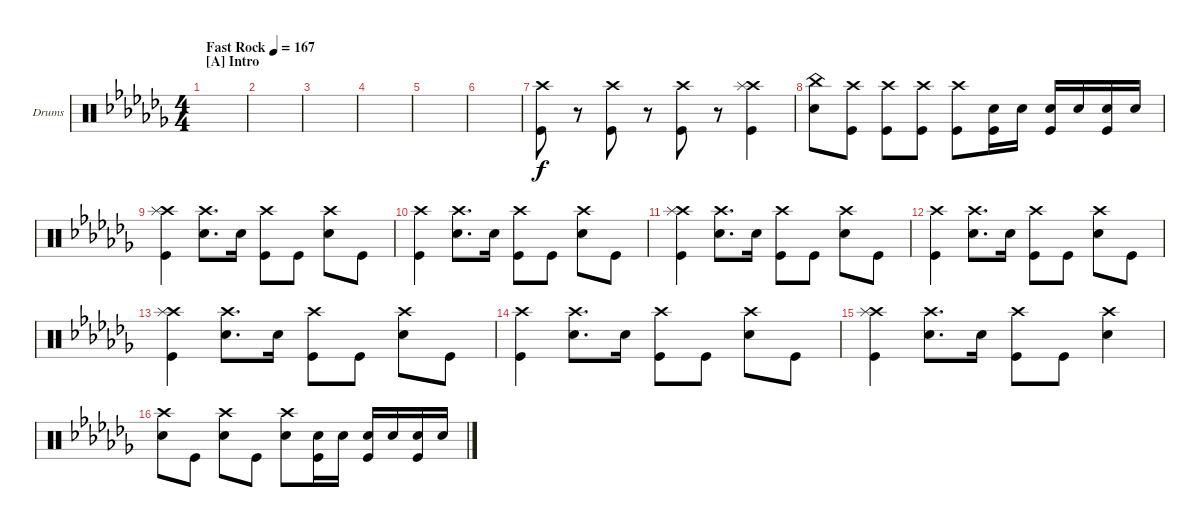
\defaultSystemsLayout 4
\bracketExtendMode groupsimilarinstruments
\firstSystemTrackNameOrientation horizontal
\otherSystemsTrackNameOrientation horizontal
\track ("Drumkit" "Drums") {instrument percussion}
\staff {score}
\articulation defaults
\ts (4 4)
\section ("A" "Intro")
\tempo (167 "Fast Rock")
\clef neutral
\ks abminor
|
|
|
|
|
|
("Kick (hit)" "Crash high (hit)").8 r.8 ("Kick (hit)" "Crash high (hit)").8 r.8 ("Kick (hit)" "Crash high (hit)").8 r.8 ("Kick (hit)" "Crash high (hit)" "Splash (hit)").4 |
("Snare (hit) 2" "China (hit)").8 ("Kick (hit)" "Crash high (hit)").8 ("Kick (hit)" "Crash high (hit)").8 ("Kick (hit)" "Crash high (hit)").8 ("Kick (hit)" "Crash high (hit)").8 ("Kick (hit)" "Snare (hit) 2").16 "Snare (hit) 2".16 ("Kick (hit)" "Snare (hit) 2").16 "Snare (hit) 2".16 ("Snare (hit) 2" "Kick (hit)").16 "Snare (hit) 2".16 |
("Crash high (hit)" "Kick (hit)" "Splash (hit)").4 ("Snare (hit) 2" "Crash high (hit)").8{d} "Snare (hit) 2".16 ("Kick (hit)" "Crash high (hit)").8 "Kick (hit)".8 ("Snare (hit) 2" "Crash high (hit)").8 "Kick (hit)".8 |
("Crash high (hit)" "Kick (hit)").4 ("Snare (hit) 2" "Crash high (hit)").8{d} "Snare (hit) 2".16 ("Kick (hit)" "Crash high (hit)").8 "Kick (hit)".8 ("Snare (hit) 2" "Crash high (hit)").8 "Kick (hit)".8 |
("Crash high (hit)" "Kick (hit)" "Splash (hit)").4 ("Snare (hit) 2" "Crash high (hit)").8{d} "Snare (hit) 2".16 ("Kick (hit)" "Crash high (hit)").8 "Kick (hit)".8 ("Snare (hit) 2" "Crash high (hit)").8 "Kick (hit)".8 |
("Crash high (hit)" "Kick (hit)").4 ("Snare (hit) 2" "Crash high (hit)").8{d} "Snare (hit) 2".16 ("Kick (hit)" "Crash high (hit)").8 "Kick (hit)".8 ("Snare (hit) 2" "Crash high (hit)").8 "Kick (hit)".8 |
("Crash high (hit)" "Kick (hit)" "Splash (hit)").4 ("Snare (hit) 2" "Crash high (hit)").8{d} "Snare (hit) 2".16 ("Kick (hit)" "Crash high (hit)").8 "Kick (hit)".8 ("Snare (hit) 2" "Crash high (hit)").8 "Kick (hit)".8 |
("Crash high (hit)" "Kick (hit)").4 ("Snare (hit) 2" "Crash high (hit)").8{d} "Snare (hit) 2".16 ("Kick (hit)" "Crash high (hit)").8 "Kick (hit)".8 ("Snare (hit) 2" "Crash high (hit)").8 "Kick (hit)".8 |
("Crash high (hit)" "Kick (hit)" "Splash (hit)").4 ("Snare (hit) 2" "Crash high (hit)").8{d} "Snare (hit) 2".16 ("Kick (hit)" "Crash high (hit)").8 "Kick (hit)".8 ("Snare (hit) 2" "Crash high (hit)").4 |
("Snare (hit) 2" "Crash high (hit)").8 "Kick (hit)".8 ("Snare (hit) 2" "Crash high (hit)").8 "Kick (hit)".8 ("Snare (hit) 2" "Crash high (hit)").8 ("Kick (hit)" "Snare (hit) 2").16 "Snare (hit) 2".16 ("Snare (hit) 2" "Kick (hit)").16 "Snare (hit) 2".16 ("Snare (hit) 2" "Kick (hit)").16 "Snare (hit) 2".16
